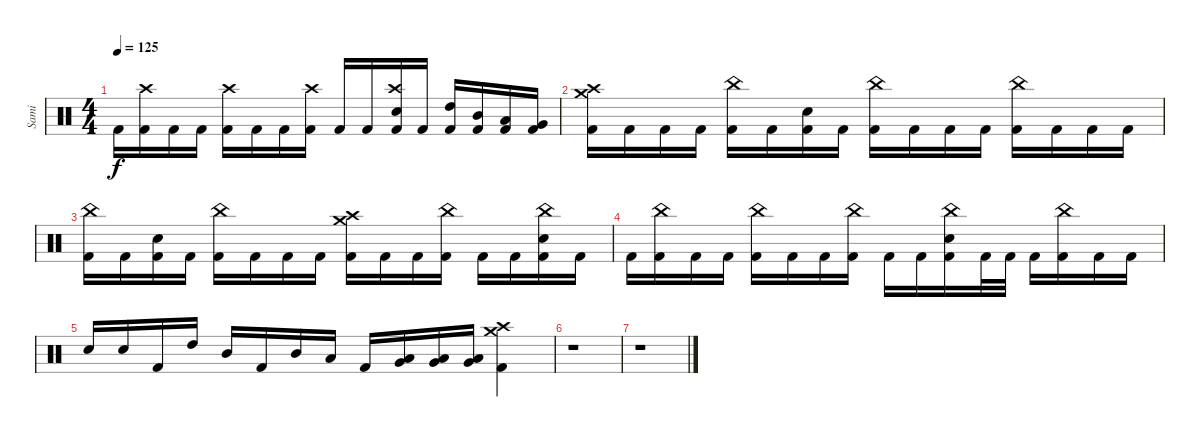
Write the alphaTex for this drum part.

\track ("Sami" "Sami") {instrument percussion}
\staff {score}
\articulation defaults
\ts (4 4)
\tempo 125
\clef neutral
\ks c "Kick (hit) 2".16{dy f}
("Crash high (hit)" "Kick (hit) 2").16 "Kick (hit) 2".16 "Kick (hit) 2".16 ("Crash high (hit)" "Kick (hit) 2").16 "Kick (hit) 2".16 "Kick (hit) 2".16 ("Crash high (hit)" "Kick (hit) 2").16 "Kick (hit) 2".16 "Kick (hit) 2".16 ("Crash high (hit)" "Snare (hit) 2" "Kick (hit) 2").16 "Kick (hit) 2".16 ("High Tom (hit)" "Kick (hit) 2").16 ("Mid Tom (hit)" "Kick (hit) 2").16 ("Low Tom (hit)" "Kick (hit) 2").16 ("Very Low Tom (hit)" "Kick (hit) 2").16 |
("Crash medium (hit)" "Crash high (hit)" "Kick (hit) 2").16 "Kick (hit) 2".16 "Kick (hit) 2".16 "Kick (hit) 2".16 ("China (hit)" "Kick (hit) 2").16 "Kick (hit) 2".16 ("Snare (hit) 2" "Kick (hit) 2").16 "Kick (hit) 2".16 ("China (hit)" "Kick (hit) 2").16 "Kick (hit) 2".16 "Kick (hit) 2".16 "Kick (hit) 2".16 ("China (hit)" "Kick (hit) 2").16 "Kick (hit) 2".16 "Kick (hit) 2".16 "Kick (hit) 2".16 |
("China (hit)" "Kick (hit) 2").16 "Kick (hit) 2".16 ("Snare (hit) 2" "Kick (hit) 2").16 "Kick (hit) 2".16 ("China (hit)" "Kick (hit) 2").16 "Kick (hit) 2".16 "Kick (hit) 2".16 "Kick (hit) 2".16 ("Crash high (hit)" "Crash medium (hit)" "Kick (hit) 2").16 "Kick (hit) 2".16 "Kick (hit) 2".16 ("China (hit)" "Kick (hit) 2").16 "Kick (hit) 2".16 "Kick (hit) 2".16 ("China (hit)" "Snare (hit) 2" "Kick (hit) 2").16 "Kick (hit) 2".16 |
"Kick (hit) 2".16 ("China (hit)" "Kick (hit) 2").16 "Kick (hit) 2".16 "Kick (hit) 2".16 ("China (hit)" "Kick (hit) 2").16 "Kick (hit) 2".16 "Kick (hit) 2".16 ("China (hit)" "Kick (hit) 2").16 "Kick (hit) 2".16 "Kick (hit) 2".16 ("China (hit)" "Snare (hit) 2" "Kick (hit) 2").16 "Kick (hit) 2".32 "Kick (hit) 2".32 "Kick (hit) 2".16 ("China (hit)" "Kick (hit) 2").16 "Kick (hit) 2".16 "Kick (hit) 2".16 |
"Snare (hit) 2".16 "Snare (hit) 2".16 "Kick (hit) 2".16 "High Tom (hit)".16 "Mid Tom (hit)".16 "Kick (hit) 2".16 "Mid Tom (hit)".16 "Low Tom (hit)".16 "Kick (hit) 2".16 ("Low Tom (hit)" "Very Low Tom (hit)").16 ("Low Tom (hit)" "Very Low Tom (hit)").16 ("Low Tom (hit)" "Very Low Tom (hit)").16 ("Crash high (hit)" "Crash medium (hit)" "Kick (hit) 2").4 |
r.1 |
r.1
